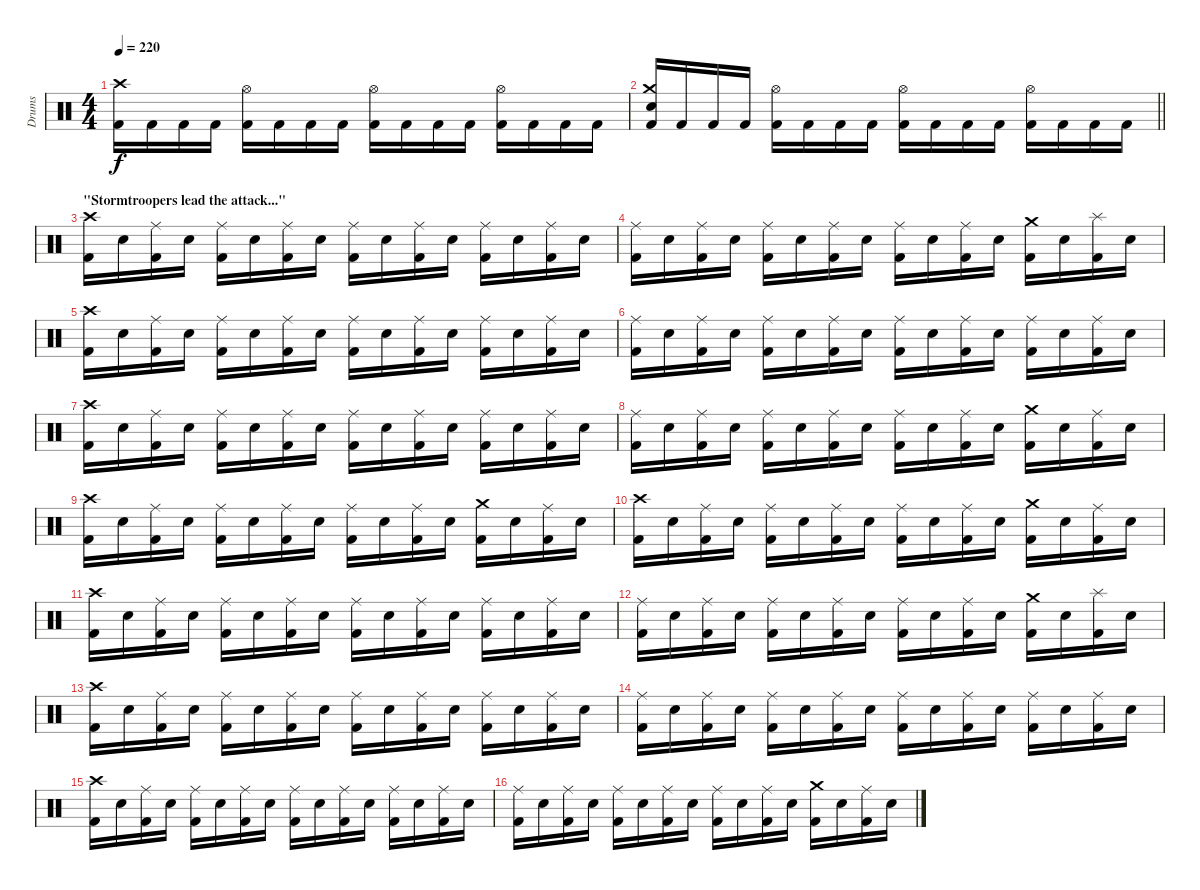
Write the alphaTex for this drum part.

\track ("Drums" "Drums") {instrument percussion}
\staff {score}
\articulation defaults
\ts (4 4)
\tempo 220
\clef neutral
\ks c
("Crash high (hit)" "Kick (hit) 2").16{dy f} "Kick (hit) 2".16 "Kick (hit) 2".16 "Kick (hit) 2".16 ("Hi-Hat (open)" "Kick (hit) 2").16 "Kick (hit) 2".16 "Kick (hit) 2".16 "Kick (hit) 2".16 ("Hi-Hat (open)" "Kick (hit) 2").16 "Kick (hit) 2".16 "Kick (hit) 2".16 "Kick (hit) 2".16 ("Hi-Hat (open)" "Kick (hit) 2").16 "Kick (hit) 2".16 "Kick (hit) 2".16 "Kick (hit) 2".16 |
\barLineRight lightlight
("Crash medium (hit)" "Electric Snare (hit)" "Kick (hit) 2").16 "Kick (hit) 2".16 "Kick (hit) 2".16 "Kick (hit) 2".16 ("Hi-Hat (open)" "Kick (hit) 2").16 "Kick (hit) 2".16 "Kick (hit) 2".16 "Kick (hit) 2".16 ("Hi-Hat (open)" "Kick (hit) 2").16 "Kick (hit) 2".16 "Kick (hit) 2".16 "Kick (hit) 2".16 ("Hi-Hat (open)" "Kick (hit) 2").16 "Kick (hit) 2".16 "Kick (hit) 2".16 "Kick (hit) 2".16 |
\section ("" "\"Stormtroopers lead the attack...\"")
("Crash high (hit)" "Kick (hit) 2").16 "Electric Snare (hit)".16 ("Ride (middle)" "Kick (hit) 2").16 "Electric Snare (hit)".16 ("Ride (middle)" "Kick (hit) 2").16 "Electric Snare (hit)".16 ("Ride (middle)" "Kick (hit) 2").16 "Electric Snare (hit)".16 ("Ride (middle)" "Kick (hit) 2").16 "Electric Snare (hit)".16 ("Ride (middle)" "Kick (hit) 2").16 "Electric Snare (hit)".16 ("Ride (middle)" "Kick (hit) 2").16 "Electric Snare (hit)".16 ("Ride (middle)" "Kick (hit) 2").16 "Electric Snare (hit)".16 |
("Ride (middle)" "Kick (hit) 2").16 "Electric Snare (hit)".16 ("Ride (middle)" "Kick (hit) 2").16 "Electric Snare (hit)".16 ("Ride (middle)" "Kick (hit) 2").16 "Electric Snare (hit)".16 ("Ride (middle)" "Kick (hit) 2").16 "Electric Snare (hit)".16 ("Ride (middle)" "Kick (hit) 2").16 "Electric Snare (hit)".16 ("Ride (middle)" "Kick (hit) 2").16 "Electric Snare (hit)".16 ("Crash medium (hit)" "Kick (hit) 2").16 "Electric Snare (hit)".16 ("Splash (hit)" "Kick (hit) 2").16 "Electric Snare (hit)".16 |
("Crash high (hit)" "Kick (hit) 2").16 "Electric Snare (hit)".16 ("Ride (middle)" "Kick (hit) 2").16 "Electric Snare (hit)".16 ("Ride (middle)" "Kick (hit) 2").16 "Electric Snare (hit)".16 ("Ride (middle)" "Kick (hit) 2").16 "Electric Snare (hit)".16 ("Ride (middle)" "Kick (hit) 2").16 "Electric Snare (hit)".16 ("Ride (middle)" "Kick (hit) 2").16 "Electric Snare (hit)".16 ("Ride (middle)" "Kick (hit) 2").16 "Electric Snare (hit)".16 ("Ride (middle)" "Kick (hit) 2").16 "Electric Snare (hit)".16 |
("Ride (middle)" "Kick (hit) 2").16 "Electric Snare (hit)".16 ("Ride (middle)" "Kick (hit) 2").16 "Electric Snare (hit)".16 ("Ride (middle)" "Kick (hit) 2").16 "Electric Snare (hit)".16 ("Ride (middle)" "Kick (hit) 2").16 "Electric Snare (hit)".16 ("Ride (middle)" "Kick (hit) 2").16 "Electric Snare (hit)".16 ("Ride (middle)" "Kick (hit) 2").16 "Electric Snare (hit)".16 ("Ride (middle)" "Kick (hit) 2").16 "Electric Snare (hit)".16 ("Ride (middle)" "Kick (hit) 2").16 "Electric Snare (hit)".16 |
("Crash high (hit)" "Kick (hit) 2").16 "Electric Snare (hit)".16 ("Ride (middle)" "Kick (hit) 2").16 "Electric Snare (hit)".16 ("Ride (middle)" "Kick (hit) 2").16 "Electric Snare (hit)".16 ("Ride (middle)" "Kick (hit) 2").16 "Electric Snare (hit)".16 ("Ride (middle)" "Kick (hit) 2").16 "Electric Snare (hit)".16 ("Ride (middle)" "Kick (hit) 2").16 "Electric Snare (hit)".16 ("Ride (middle)" "Kick (hit) 2").16 "Electric Snare (hit)".16 ("Ride (middle)" "Kick (hit) 2").16 "Electric Snare (hit)".16 |
("Ride (middle)" "Kick (hit) 2").16 "Electric Snare (hit)".16 ("Ride (middle)" "Kick (hit) 2").16 "Electric Snare (hit)".16 ("Ride (middle)" "Kick (hit) 2").16 "Electric Snare (hit)".16 ("Ride (middle)" "Kick (hit) 2").16 "Electric Snare (hit)".16 ("Ride (middle)" "Kick (hit) 2").16 "Electric Snare (hit)".16 ("Ride (middle)" "Kick (hit) 2").16 "Electric Snare (hit)".16 ("Crash medium (hit)" "Kick (hit) 2").16 "Electric Snare (hit)".16 ("Ride (middle)" "Kick (hit) 2").16 "Electric Snare (hit)".16 |
("Crash high (hit)" "Kick (hit) 2").16 "Electric Snare (hit)".16 ("Ride (middle)" "Kick (hit) 2").16 "Electric Snare (hit)".16 ("Ride (middle)" "Kick (hit) 2").16 "Electric Snare (hit)".16 ("Ride (middle)" "Kick (hit) 2").16 "Electric Snare (hit)".16 ("Ride (middle)" "Kick (hit) 2").16 "Electric Snare (hit)".16 ("Ride (middle)" "Kick (hit) 2").16 "Electric Snare (hit)".16 ("Crash medium (hit)" "Kick (hit) 2").16 "Electric Snare (hit)".16 ("Ride (middle)" "Kick (hit) 2").16 "Electric Snare (hit)".16 |
("Crash high (hit)" "Kick (hit) 2").16 "Electric Snare (hit)".16 ("Ride (middle)" "Kick (hit) 2").16 "Electric Snare (hit)".16 ("Ride (middle)" "Kick (hit) 2").16 "Electric Snare (hit)".16 ("Ride (middle)" "Kick (hit) 2").16 "Electric Snare (hit)".16 ("Ride (middle)" "Kick (hit) 2").16 "Electric Snare (hit)".16 ("Ride (middle)" "Kick (hit) 2").16 "Electric Snare (hit)".16 ("Crash medium (hit)" "Kick (hit) 2").16 "Electric Snare (hit)".16 ("Ride (middle)" "Kick (hit) 2").16 "Electric Snare (hit)".16 |
("Crash high (hit)" "Kick (hit) 2").16 "Electric Snare (hit)".16 ("Ride (middle)" "Kick (hit) 2").16 "Electric Snare (hit)".16 ("Ride (middle)" "Kick (hit) 2").16 "Electric Snare (hit)".16 ("Ride (middle)" "Kick (hit) 2").16 "Electric Snare (hit)".16 ("Ride (middle)" "Kick (hit) 2").16 "Electric Snare (hit)".16 ("Ride (middle)" "Kick (hit) 2").16 "Electric Snare (hit)".16 ("Ride (middle)" "Kick (hit) 2").16 "Electric Snare (hit)".16 ("Ride (middle)" "Kick (hit) 2").16 "Electric Snare (hit)".16 |
("Ride (middle)" "Kick (hit) 2").16 "Electric Snare (hit)".16 ("Ride (middle)" "Kick (hit) 2").16 "Electric Snare (hit)".16 ("Ride (middle)" "Kick (hit) 2").16 "Electric Snare (hit)".16 ("Ride (middle)" "Kick (hit) 2").16 "Electric Snare (hit)".16 ("Ride (middle)" "Kick (hit) 2").16 "Electric Snare (hit)".16 ("Ride (middle)" "Kick (hit) 2").16 "Electric Snare (hit)".16 ("Crash medium (hit)" "Kick (hit) 2").16 "Electric Snare (hit)".16 ("Splash (hit)" "Kick (hit) 2").16 "Electric Snare (hit)".16 |
("Crash high (hit)" "Kick (hit) 2").16 "Electric Snare (hit)".16 ("Ride (middle)" "Kick (hit) 2").16 "Electric Snare (hit)".16 ("Ride (middle)" "Kick (hit) 2").16 "Electric Snare (hit)".16 ("Ride (middle)" "Kick (hit) 2").16 "Electric Snare (hit)".16 ("Ride (middle)" "Kick (hit) 2").16 "Electric Snare (hit)".16 ("Ride (middle)" "Kick (hit) 2").16 "Electric Snare (hit)".16 ("Ride (middle)" "Kick (hit) 2").16 "Electric Snare (hit)".16 ("Ride (middle)" "Kick (hit) 2").16 "Electric Snare (hit)".16 |
("Ride (middle)" "Kick (hit) 2").16 "Electric Snare (hit)".16 ("Ride (middle)" "Kick (hit) 2").16 "Electric Snare (hit)".16 ("Ride (middle)" "Kick (hit) 2").16 "Electric Snare (hit)".16 ("Ride (middle)" "Kick (hit) 2").16 "Electric Snare (hit)".16 ("Ride (middle)" "Kick (hit) 2").16 "Electric Snare (hit)".16 ("Ride (middle)" "Kick (hit) 2").16 "Electric Snare (hit)".16 ("Ride (middle)" "Kick (hit) 2").16 "Electric Snare (hit)".16 ("Ride (middle)" "Kick (hit) 2").16 "Electric Snare (hit)".16 |
("Crash high (hit)" "Kick (hit) 2").16 "Electric Snare (hit)".16 ("Ride (middle)" "Kick (hit) 2").16 "Electric Snare (hit)".16 ("Ride (middle)" "Kick (hit) 2").16 "Electric Snare (hit)".16 ("Ride (middle)" "Kick (hit) 2").16 "Electric Snare (hit)".16 ("Ride (middle)" "Kick (hit) 2").16 "Electric Snare (hit)".16 ("Ride (middle)" "Kick (hit) 2").16 "Electric Snare (hit)".16 ("Ride (middle)" "Kick (hit) 2").16 "Electric Snare (hit)".16 ("Ride (middle)" "Kick (hit) 2").16 "Electric Snare (hit)".16 |
("Ride (middle)" "Kick (hit) 2").16 "Electric Snare (hit)".16 ("Ride (middle)" "Kick (hit) 2").16 "Electric Snare (hit)".16 ("Ride (middle)" "Kick (hit) 2").16 "Electric Snare (hit)".16 ("Ride (middle)" "Kick (hit) 2").16 "Electric Snare (hit)".16 ("Ride (middle)" "Kick (hit) 2").16 "Electric Snare (hit)".16 ("Ride (middle)" "Kick (hit) 2").16 "Electric Snare (hit)".16 ("Crash medium (hit)" "Kick (hit) 2").16 "Electric Snare (hit)".16 ("Ride (middle)" "Kick (hit) 2").16 "Electric Snare (hit)".16
